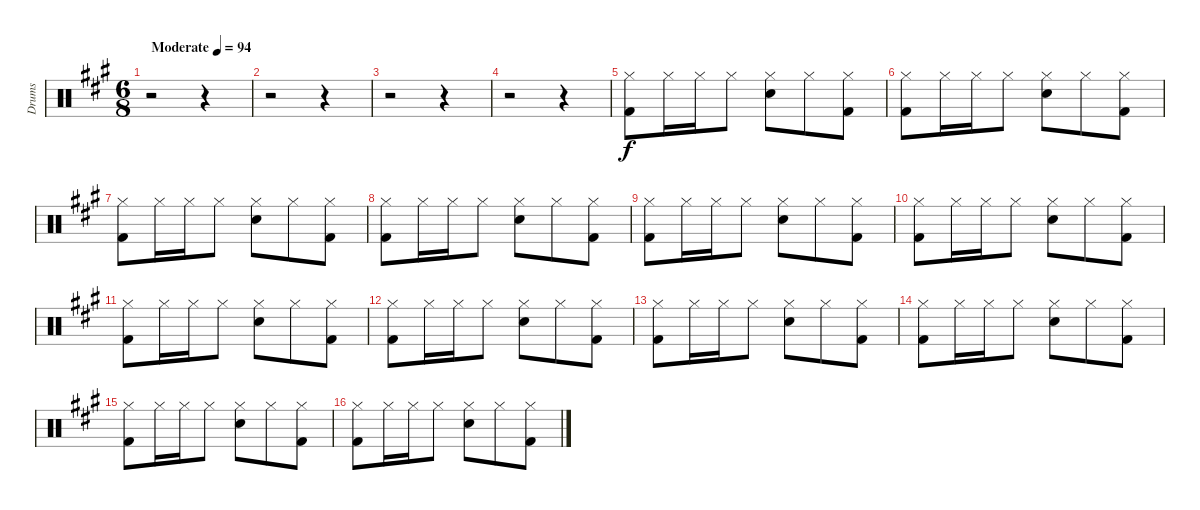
\track ("Drums" "Drums") {instrument percussion}
\staff {score}
\articulation defaults
\ts (6 8)
\tempo (94 "Moderate")
\clef neutral
\ks a
r.2{dy f} r.4 |
r.2 r.4 |
r.2 r.4 |
r.2 r.4 |
("Hi-Hat (closed)" "Kick (hit) 2").8 "Hi-Hat (closed)".16 "Hi-Hat (closed)".16 "Hi-Hat (closed)".8 ("Hi-Hat (closed)" "Snare (hit) 2").8 "Hi-Hat (closed)".8 ("Hi-Hat (closed)" "Kick (hit) 2").8 |
("Hi-Hat (closed)" "Kick (hit) 2").8 "Hi-Hat (closed)".16 "Hi-Hat (closed)".16 "Hi-Hat (closed)".8 ("Hi-Hat (closed)" "Snare (hit) 2").8 "Hi-Hat (closed)".8 ("Hi-Hat (closed)" "Kick (hit) 2").8 |
("Hi-Hat (closed)" "Kick (hit) 2").8 "Hi-Hat (closed)".16 "Hi-Hat (closed)".16 "Hi-Hat (closed)".8 ("Hi-Hat (closed)" "Snare (hit) 2").8 "Hi-Hat (closed)".8 ("Hi-Hat (closed)" "Kick (hit) 2").8 |
("Hi-Hat (closed)" "Kick (hit) 2").8 "Hi-Hat (closed)".16 "Hi-Hat (closed)".16 "Hi-Hat (closed)".8 ("Hi-Hat (closed)" "Snare (hit) 2").8 "Hi-Hat (closed)".8 ("Hi-Hat (closed)" "Kick (hit) 2").8 |
("Hi-Hat (closed)" "Kick (hit) 2").8 "Hi-Hat (closed)".16 "Hi-Hat (closed)".16 "Hi-Hat (closed)".8 ("Hi-Hat (closed)" "Snare (hit) 2").8 "Hi-Hat (closed)".8 ("Hi-Hat (closed)" "Kick (hit) 2").8 |
("Hi-Hat (closed)" "Kick (hit) 2").8 "Hi-Hat (closed)".16 "Hi-Hat (closed)".16 "Hi-Hat (closed)".8 ("Hi-Hat (closed)" "Snare (hit) 2").8 "Hi-Hat (closed)".8 ("Hi-Hat (closed)" "Kick (hit) 2").8 |
("Hi-Hat (closed)" "Kick (hit) 2").8 "Hi-Hat (closed)".16 "Hi-Hat (closed)".16 "Hi-Hat (closed)".8 ("Hi-Hat (closed)" "Snare (hit) 2").8 "Hi-Hat (closed)".8 ("Hi-Hat (closed)" "Kick (hit) 2").8 |
("Hi-Hat (closed)" "Kick (hit) 2").8 "Hi-Hat (closed)".16 "Hi-Hat (closed)".16 "Hi-Hat (closed)".8 ("Hi-Hat (closed)" "Snare (hit) 2").8 "Hi-Hat (closed)".8 ("Hi-Hat (closed)" "Kick (hit) 2").8 |
("Hi-Hat (closed)" "Kick (hit) 2").8 "Hi-Hat (closed)".16 "Hi-Hat (closed)".16 "Hi-Hat (closed)".8 ("Hi-Hat (closed)" "Snare (hit) 2").8 "Hi-Hat (closed)".8 ("Hi-Hat (closed)" "Kick (hit) 2").8 |
("Hi-Hat (closed)" "Kick (hit) 2").8 "Hi-Hat (closed)".16 "Hi-Hat (closed)".16 "Hi-Hat (closed)".8 ("Hi-Hat (closed)" "Snare (hit) 2").8 "Hi-Hat (closed)".8 ("Hi-Hat (closed)" "Kick (hit) 2").8 |
("Hi-Hat (closed)" "Kick (hit) 2").8 "Hi-Hat (closed)".16 "Hi-Hat (closed)".16 "Hi-Hat (closed)".8 ("Hi-Hat (closed)" "Snare (hit) 2").8 "Hi-Hat (closed)".8 ("Hi-Hat (closed)" "Kick (hit) 2").8 |
("Hi-Hat (closed)" "Kick (hit) 2").8 "Hi-Hat (closed)".16 "Hi-Hat (closed)".16 "Hi-Hat (closed)".8 ("Hi-Hat (closed)" "Snare (hit) 2").8 "Hi-Hat (closed)".8 ("Hi-Hat (closed)" "Kick (hit) 2").8
